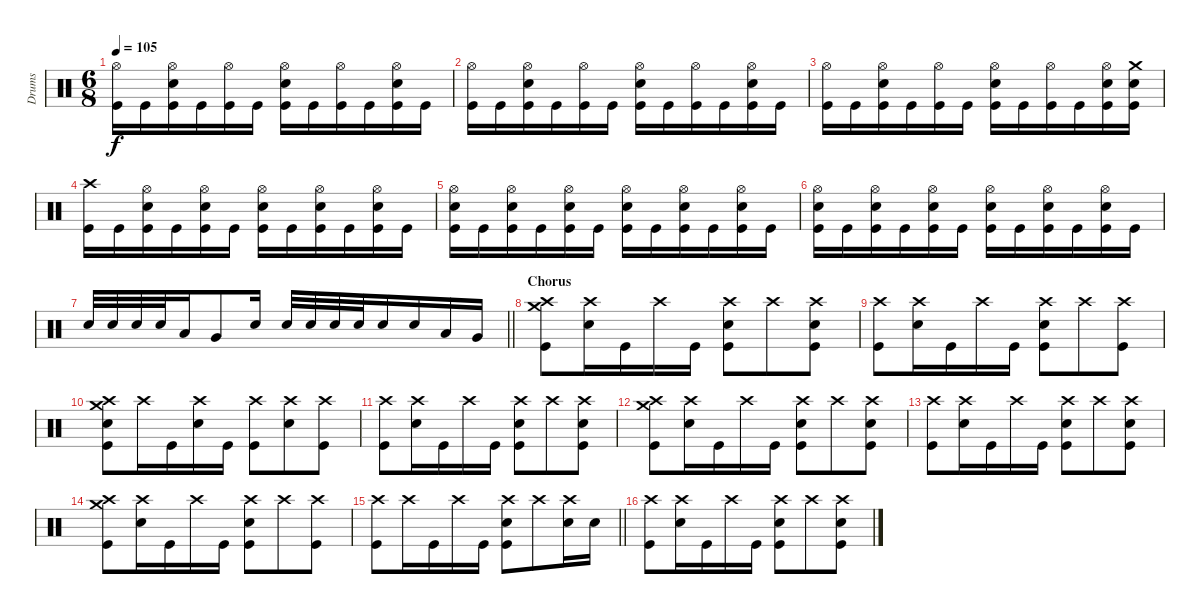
\track ("Drums" "Drums") {instrument percussion}
\staff {score}
\articulation defaults
\ts (6 8)
\tempo 105
\clef neutral
\ks c
("Hi-Hat (open)" "Kick (hit)").16{dy f} "Kick (hit)".16 ("Hi-Hat (open)" "Electric Snare (hit)" "Kick (hit)").16 "Kick (hit)".16 ("Hi-Hat (open)" "Kick (hit)").16 "Kick (hit)".16 ("Hi-Hat (open)" "Electric Snare (hit)" "Kick (hit)").16 "Kick (hit)".16 ("Hi-Hat (open)" "Kick (hit)").16 "Kick (hit)".16 ("Hi-Hat (open)" "Electric Snare (hit)" "Kick (hit)").16 "Kick (hit)".16 |
("Hi-Hat (open)" "Kick (hit)").16 "Kick (hit)".16 ("Hi-Hat (open)" "Electric Snare (hit)" "Kick (hit)").16 "Kick (hit)".16 ("Hi-Hat (open)" "Kick (hit)").16 "Kick (hit)".16 ("Hi-Hat (open)" "Electric Snare (hit)" "Kick (hit)").16 "Kick (hit)".16 ("Hi-Hat (open)" "Kick (hit)").16 "Kick (hit)".16 ("Hi-Hat (open)" "Electric Snare (hit)" "Kick (hit)").16 "Kick (hit)".16 |
("Hi-Hat (open)" "Kick (hit)").16 "Kick (hit)".16 ("Hi-Hat (open)" "Electric Snare (hit)" "Kick (hit)").16 "Kick (hit)".16 ("Hi-Hat (open)" "Kick (hit)").16 "Kick (hit)".16 ("Hi-Hat (open)" "Electric Snare (hit)" "Kick (hit)").16 "Kick (hit)".16 ("Hi-Hat (open)" "Kick (hit)").16 "Kick (hit)".16 ("Hi-Hat (open)" "Electric Snare (hit)" "Kick (hit)").16 ("Crash medium (hit)" "Electric Snare (hit)" "Kick (hit)").16 |
("Crash high (hit)" "Kick (hit)").16 "Kick (hit)".16 ("Hi-Hat (open)" "Electric Snare (hit)" "Kick (hit)").16 "Kick (hit)".16 ("Hi-Hat (open)" "Electric Snare (hit)" "Kick (hit)").16 "Kick (hit)".16 ("Hi-Hat (open)" "Electric Snare (hit)" "Kick (hit)").16 "Kick (hit)".16 ("Hi-Hat (open)" "Electric Snare (hit)" "Kick (hit)").16 "Kick (hit)".16 ("Hi-Hat (open)" "Electric Snare (hit)" "Kick (hit)").16 "Kick (hit)".16 |
("Hi-Hat (open)" "Electric Snare (hit)" "Kick (hit)").16 "Kick (hit)".16 ("Hi-Hat (open)" "Electric Snare (hit)" "Kick (hit)").16 "Kick (hit)".16 ("Hi-Hat (open)" "Electric Snare (hit)" "Kick (hit)").16 "Kick (hit)".16 ("Hi-Hat (open)" "Electric Snare (hit)" "Kick (hit)").16 "Kick (hit)".16 ("Hi-Hat (open)" "Electric Snare (hit)" "Kick (hit)").16 "Kick (hit)".16 ("Hi-Hat (open)" "Electric Snare (hit)" "Kick (hit)").16 "Kick (hit)".16 |
("Hi-Hat (open)" "Electric Snare (hit)" "Kick (hit)").16 "Kick (hit)".16 ("Hi-Hat (open)" "Electric Snare (hit)" "Kick (hit)").16 "Kick (hit)".16 ("Hi-Hat (open)" "Electric Snare (hit)" "Kick (hit)").16 "Kick (hit)".16 ("Hi-Hat (open)" "Electric Snare (hit)" "Kick (hit)").16 "Kick (hit)".16 ("Hi-Hat (open)" "Electric Snare (hit)" "Kick (hit)").16 "Kick (hit)".16 ("Hi-Hat (open)" "Electric Snare (hit)" "Kick (hit)").16 "Kick (hit)".16 |
\barLineRight lightlight "Electric Snare (hit)".32 "Electric Snare (hit)".32 "Electric Snare (hit)".32 "Electric Snare (hit)".32 "Low Tom (hit)".16 "Very Low Tom (hit)".8 "Electric Snare (hit)".16 "Electric Snare (hit)".32 "Electric Snare (hit)".32 "Electric Snare (hit)".32 "Electric Snare (hit)".32 "Electric Snare (hit)".16 "Electric Snare (hit)".16 "Low Tom (hit)".16 "Very Low Tom (hit)".16
|
\section ("" "Chorus")
("Crash medium (hit)" "Crash high (hit)" "Kick (hit)").8 ("Crash high (hit)" "Electric Snare (hit)").16 "Kick (hit)".16 "Crash high (hit)".16 "Kick (hit)".16 ("Crash high (hit)" "Electric Snare (hit)" "Kick (hit)").8 "Crash high (hit)".8 ("Crash high (hit)" "Electric Snare (hit)" "Kick (hit)").8 |
("Crash high (hit)" "Kick (hit)").8 ("Crash high (hit)" "Electric Snare (hit)").16 "Kick (hit)".16 "Crash high (hit)".16 "Kick (hit)".16 ("Crash high (hit)" "Electric Snare (hit)" "Kick (hit)").8 "Crash high (hit)".8 ("Crash high (hit)" "Kick (hit)").8 |
("Crash medium (hit)" "Crash high (hit)" "Electric Snare (hit)" "Kick (hit)").8 "Crash high (hit)".16 "Kick (hit)".16 ("Crash high (hit)" "Electric Snare (hit)").16 "Kick (hit)".16 ("Crash high (hit)" "Kick (hit)").8 ("Crash high (hit)" "Electric Snare (hit)").8 ("Crash high (hit)" "Kick (hit)").8 |
("Crash high (hit)" "Kick (hit)").8 ("Crash high (hit)" "Electric Snare (hit)").16 "Kick (hit)".16 "Crash high (hit)".16 "Kick (hit)".16 ("Crash high (hit)" "Electric Snare (hit)" "Kick (hit)").8 "Crash high (hit)".8 ("Crash high (hit)" "Electric Snare (hit)" "Kick (hit)").8 |
("Crash medium (hit)" "Crash high (hit)" "Kick (hit)").8 ("Crash high (hit)" "Electric Snare (hit)").16 "Kick (hit)".16 "Crash high (hit)".16 "Kick (hit)".16 ("Crash high (hit)" "Electric Snare (hit)" "Kick (hit)").8 "Crash high (hit)".8 ("Crash high (hit)" "Electric Snare (hit)" "Kick (hit)").8 |
("Crash high (hit)" "Kick (hit)").8 ("Crash high (hit)" "Electric Snare (hit)").16 "Kick (hit)".16 "Crash high (hit)".16 "Kick (hit)".16 ("Crash high (hit)" "Electric Snare (hit)" "Kick (hit)").8 "Crash high (hit)".8 ("Crash high (hit)" "Electric Snare (hit)" "Kick (hit)").8 |
("Crash medium (hit)" "Crash high (hit)" "Kick (hit)").8 ("Crash high (hit)" "Electric Snare (hit)").16 "Kick (hit)".16 "Crash high (hit)".16 "Kick (hit)".16 ("Crash high (hit)" "Electric Snare (hit)" "Kick (hit)").8 "Crash high (hit)".8 ("Crash high (hit)" "Kick (hit)").8 |
\barLineRight lightlight
("Crash high (hit)" "Kick (hit)").8 "Crash high (hit)".16 "Kick (hit)".16 "Crash high (hit)".16 "Kick (hit)".16 ("Crash high (hit)" "Electric Snare (hit)" "Kick (hit)").8 "Crash high (hit)".8 ("Crash high (hit)" "Electric Snare (hit)").16 "Electric Snare (hit)".16 |
("Crash high (hit)" "Kick (hit)").8 ("Crash high (hit)" "Electric Snare (hit)").16 "Kick (hit)".16 "Crash high (hit)".16 "Kick (hit)".16 ("Crash high (hit)" "Electric Snare (hit)" "Kick (hit)").8 "Crash high (hit)".8 ("Crash high (hit)" "Electric Snare (hit)" "Kick (hit)").8
